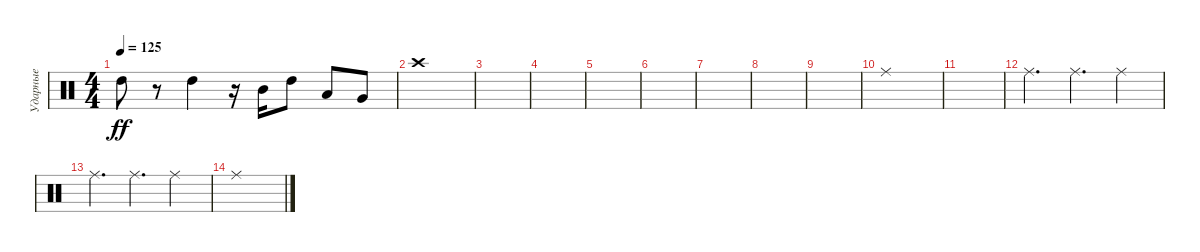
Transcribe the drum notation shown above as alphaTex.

\track ("Ударные" "Ударные") {instrument percussion}
\staff {score}
\articulation defaults
\ts (4 4)
\tempo 125
\clef neutral
\ks c "High Tom (hit)".8{dy ff}
r.8 "High Tom (hit)".4 r.16 "Mid Tom (hit)".16 "High Tom (hit)".8 "Low Tom (hit)".8 "Very Low Tom (hit)".8 |
"Crash high (hit)".1 |
|
|
|
|
|
|
|
"Ride (middle)".1 |
|
"Ride (middle)".4{d} "Ride (middle)".4{d} "Ride (middle)".4 |
"Ride (middle)".4{d} "Ride (middle)".4{d} "Ride (middle)".4 |
"Ride (middle)".1
